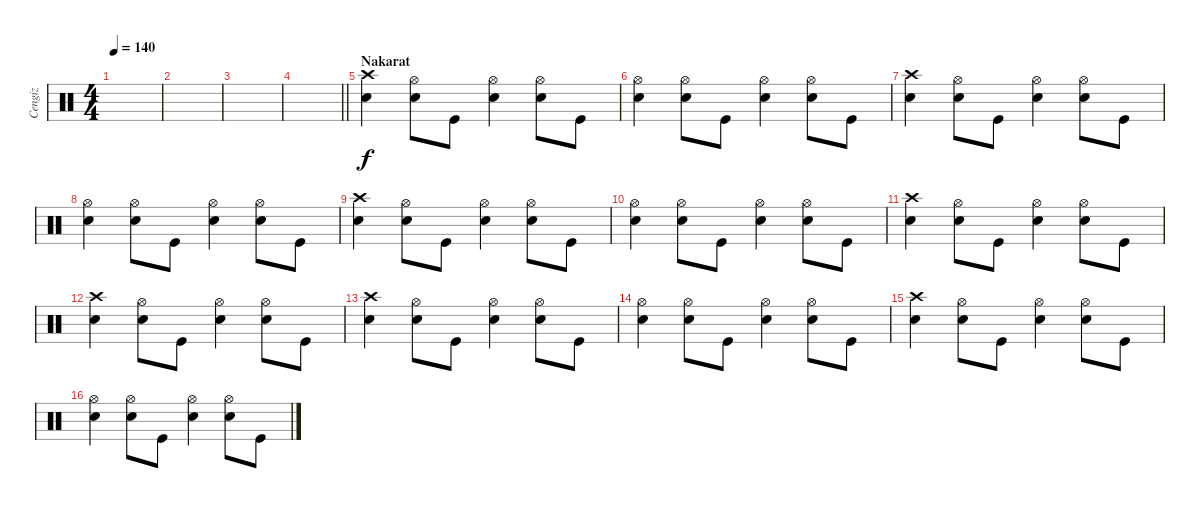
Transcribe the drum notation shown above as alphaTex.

\track ("Cengiz" "Cengiz") {instrument percussion}
\staff {score}
\articulation defaults
\ts (4 4)
\tempo 140
\clef neutral
\ks c
|
|
|
\barLineRight lightlight
|
\section ("" "Nakarat")
("Crash high (hit)" "Electric Snare (hit)").4 ("Hi-Hat (open)" "Electric Snare (hit)").8 "Kick (hit)".8 ("Hi-Hat (open)" "Electric Snare (hit)").4 ("Hi-Hat (open)" "Electric Snare (hit)").8 "Kick (hit)".8 |
("Hi-Hat (open)" "Electric Snare (hit)").4 ("Hi-Hat (open)" "Electric Snare (hit)").8 "Kick (hit)".8 ("Hi-Hat (open)" "Electric Snare (hit)").4 ("Hi-Hat (open)" "Electric Snare (hit)").8 "Kick (hit)".8 |
("Crash high (hit)" "Electric Snare (hit)").4 ("Hi-Hat (open)" "Electric Snare (hit)").8 "Kick (hit)".8 ("Hi-Hat (open)" "Electric Snare (hit)").4 ("Hi-Hat (open)" "Electric Snare (hit)").8 "Kick (hit)".8 |
("Hi-Hat (open)" "Electric Snare (hit)").4 ("Hi-Hat (open)" "Electric Snare (hit)").8 "Kick (hit)".8 ("Hi-Hat (open)" "Electric Snare (hit)").4 ("Hi-Hat (open)" "Electric Snare (hit)").8 "Kick (hit)".8 |
("Crash high (hit)" "Electric Snare (hit)").4 ("Hi-Hat (open)" "Electric Snare (hit)").8 "Kick (hit)".8 ("Hi-Hat (open)" "Electric Snare (hit)").4 ("Hi-Hat (open)" "Electric Snare (hit)").8 "Kick (hit)".8 |
("Hi-Hat (open)" "Electric Snare (hit)").4 ("Hi-Hat (open)" "Electric Snare (hit)").8 "Kick (hit)".8 ("Hi-Hat (open)" "Electric Snare (hit)").4 ("Hi-Hat (open)" "Electric Snare (hit)").8 "Kick (hit)".8 |
("Crash high (hit)" "Electric Snare (hit)").4 ("Hi-Hat (open)" "Electric Snare (hit)").8 "Kick (hit)".8 ("Hi-Hat (open)" "Electric Snare (hit)").4 ("Hi-Hat (open)" "Electric Snare (hit)").8 "Kick (hit)".8 |
("Crash high (hit)" "Electric Snare (hit)").4 ("Hi-Hat (open)" "Electric Snare (hit)").8 "Kick (hit)".8 ("Hi-Hat (open)" "Electric Snare (hit)").4 ("Hi-Hat (open)" "Electric Snare (hit)").8 "Kick (hit)".8 |
("Crash high (hit)" "Electric Snare (hit)").4 ("Hi-Hat (open)" "Electric Snare (hit)").8 "Kick (hit)".8 ("Hi-Hat (open)" "Electric Snare (hit)").4 ("Hi-Hat (open)" "Electric Snare (hit)").8 "Kick (hit)".8 |
("Hi-Hat (open)" "Electric Snare (hit)").4 ("Hi-Hat (open)" "Electric Snare (hit)").8 "Kick (hit)".8 ("Hi-Hat (open)" "Electric Snare (hit)").4 ("Hi-Hat (open)" "Electric Snare (hit)").8 "Kick (hit)".8 |
("Crash high (hit)" "Electric Snare (hit)").4 ("Hi-Hat (open)" "Electric Snare (hit)").8 "Kick (hit)".8 ("Hi-Hat (open)" "Electric Snare (hit)").4 ("Hi-Hat (open)" "Electric Snare (hit)").8 "Kick (hit)".8 |
("Hi-Hat (open)" "Electric Snare (hit)").4 ("Hi-Hat (open)" "Electric Snare (hit)").8 "Kick (hit)".8 ("Hi-Hat (open)" "Electric Snare (hit)").4 ("Hi-Hat (open)" "Electric Snare (hit)").8 "Kick (hit)".8
